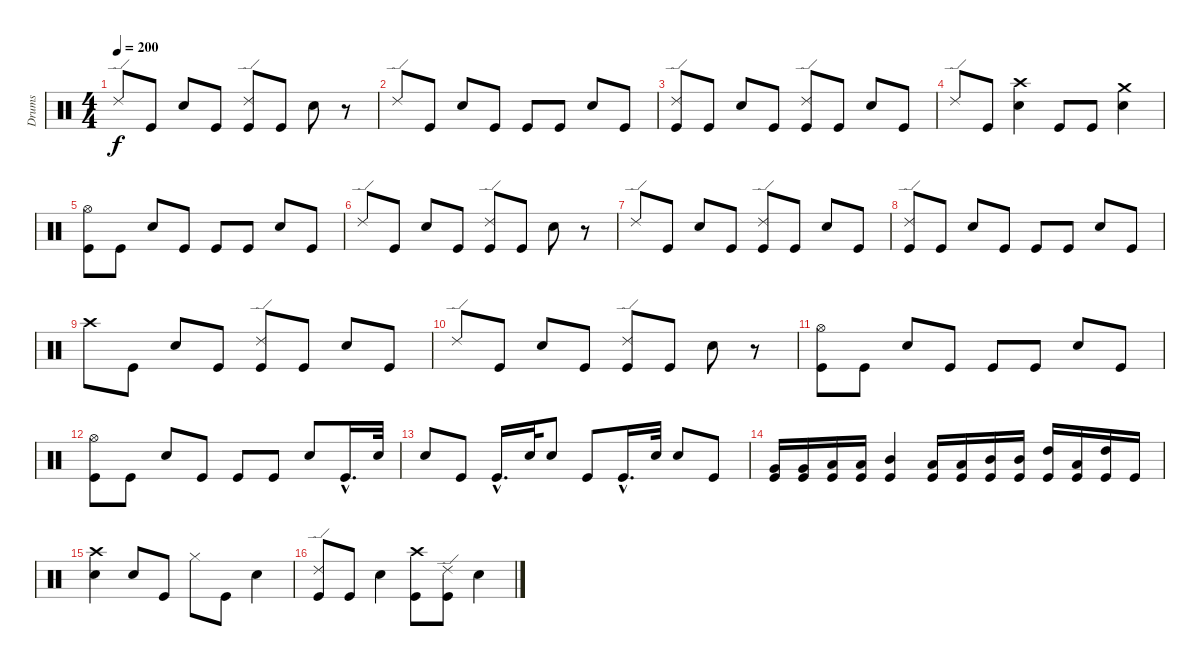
\track ("Drums" "Drums") {instrument percussion}
\staff {score}
\articulation defaults
\ts (4 4)
\tempo 200
\clef neutral
\ks c "Ride (edge) 2".8{dy f} "Kick (hit)".8 "Snare (hit) 2".8 "Kick (hit)".8
("Ride (edge) 2" "Kick (hit)").8 "Kick (hit)".8 "Snare (hit) 2".8 r.8 |
"Ride (edge) 2".8 "Kick (hit)".8 "Snare (hit) 2".8 "Kick (hit)".8 "Kick (hit)".8 "Kick (hit)".8 "Snare (hit) 2".8 "Kick (hit)".8 |
("Ride (edge) 2" "Kick (hit)").8 "Kick (hit)".8 "Snare (hit) 2".8 "Kick (hit)".8 ("Ride (edge) 2" "Kick (hit)").8 "Kick (hit)".8 "Snare (hit) 2".8 "Kick (hit)".8 |
"Ride (edge) 2".8 "Kick (hit)".8 ("Crash high (hit)" "Snare (hit) 2").4 "Kick (hit)".8 "Kick (hit)".8 ("Crash medium (hit)" "Snare (hit) 2").4 |
("Hi-Hat (open)" "Kick (hit)").8 "Kick (hit)".8 "Snare (hit) 2".8 "Kick (hit)".8 "Kick (hit)".8 "Kick (hit)".8 "Snare (hit) 2".8 "Kick (hit)".8 |
"Ride (edge) 2".8 "Kick (hit)".8 "Snare (hit) 2".8 "Kick (hit)".8 ("Ride (edge) 2" "Kick (hit)").8 "Kick (hit)".8 "Snare (hit) 2".8 r.8 |
"Ride (edge) 2".8 "Kick (hit)".8 "Snare (hit) 2".8 "Kick (hit)".8 ("Ride (edge) 2" "Kick (hit)").8 "Kick (hit)".8 "Snare (hit) 2".8 "Kick (hit)".8 |
("Ride (edge) 2" "Kick (hit)").8 "Kick (hit)".8 "Snare (hit) 2".8 "Kick (hit)".8 "Kick (hit)".8 "Kick (hit)".8 "Snare (hit) 2".8 "Kick (hit)".8 |
"Crash high (hit)".8 "Kick (hit)".8 "Snare (hit) 2".8 "Kick (hit)".8 ("Ride (edge) 2" "Kick (hit)").8 "Kick (hit)".8 "Snare (hit) 2".8 "Kick (hit)".8 |
"Ride (edge) 2".8 "Kick (hit)".8 "Snare (hit) 2".8 "Kick (hit)".8 ("Ride (edge) 2" "Kick (hit)").8 "Kick (hit)".8 "Snare (hit) 2".8 r.8 |
("Hi-Hat (open)" "Kick (hit)").8 "Kick (hit)".8 "Snare (hit) 2".8 "Kick (hit)".8 "Kick (hit)".8 "Kick (hit)".8 "Snare (hit) 2".8 "Kick (hit)".8 |
("Hi-Hat (open)" "Kick (hit)").8 "Kick (hit)".8 "Snare (hit) 2".8 "Kick (hit)".8 "Kick (hit)".8 "Kick (hit)".8 "Snare (hit) 2".8 "Kick (hit)"{hac}.16{d} "Snare (hit) 2".32 |
"Snare (hit) 2".8 "Kick (hit)".8 "Kick (hit)"{hac}.16{d} "Snare (hit) 2".32 "Snare (hit) 2".8 "Kick (hit)".8 "Kick (hit)"{hac}.16{d} "Snare (hit) 2".32 "Snare (hit) 2".8 "Kick (hit)".8 |
("Very Low Tom (hit)" "Kick (hit)").16 ("Very Low Tom (hit)" "Kick (hit)").16 ("Low Tom (hit)" "Kick (hit)").16 ("Low Tom (hit)" "Kick (hit)").16 ("Mid Tom (hit)" "Kick (hit)").4 ("Low Tom (hit)" "Kick (hit)").16 ("Low Tom (hit)" "Kick (hit)").16 ("Mid Tom (hit)" "Kick (hit)").16 ("Mid Tom (hit)" "Kick (hit)").16 ("High Tom (hit)" "Kick (hit)").16 ("Low Tom (hit)" "Kick (hit)").16 ("High Tom (hit)" "Kick (hit)").16 "Kick (hit)".16 |
("Crash high (hit)" "Snare (hit) 2").4 "Snare (hit) 2".8 "Kick (hit)".8 "Hi-Hat (closed)".8 "Kick (hit)".8 "Snare (hit) 2".4 |
("Ride (edge) 2" "Kick (hit)").8 "Kick (hit)".8 "Snare (hit) 2".4 ("Crash high (hit)" "Kick (hit)").8 ("Ride (edge) 2" "Kick (hit)").8 "Snare (hit) 2".4
